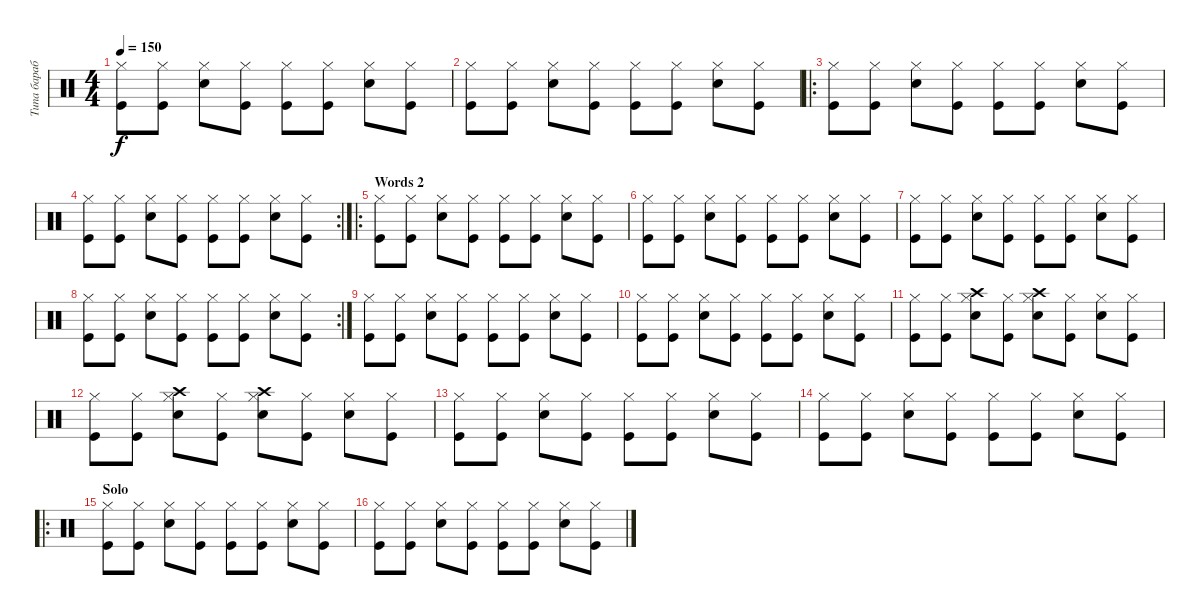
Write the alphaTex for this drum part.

\track ("Типа барабанщик" "Типа бараб") {instrument percussion}
\staff {score}
\articulation defaults
\ts (4 4)
\tempo 150
\clef neutral
\ks c
("Hi-Hat (closed)" "Kick (hit)").8{dy f} ("Hi-Hat (closed)" "Kick (hit)").8 ("Hi-Hat (closed)" "Snare (hit) 2").8 ("Hi-Hat (closed)" "Kick (hit)").8 ("Hi-Hat (closed)" "Kick (hit)").8 ("Hi-Hat (closed)" "Kick (hit)").8 ("Hi-Hat (closed)" "Snare (hit) 2").8 ("Hi-Hat (closed)" "Kick (hit)").8 |
("Hi-Hat (closed)" "Kick (hit)").8 ("Hi-Hat (closed)" "Kick (hit)").8 ("Hi-Hat (closed)" "Snare (hit) 2").8 ("Hi-Hat (closed)" "Kick (hit)").8 ("Hi-Hat (closed)" "Kick (hit)").8 ("Hi-Hat (closed)" "Kick (hit)").8 ("Hi-Hat (closed)" "Snare (hit) 2").8 ("Hi-Hat (closed)" "Kick (hit)").8 |
\ro
("Hi-Hat (closed)" "Kick (hit)").8 ("Hi-Hat (closed)" "Kick (hit)").8 ("Hi-Hat (closed)" "Snare (hit) 2").8 ("Hi-Hat (closed)" "Kick (hit)").8 ("Hi-Hat (closed)" "Kick (hit)").8 ("Hi-Hat (closed)" "Kick (hit)").8 ("Hi-Hat (closed)" "Snare (hit) 2").8 ("Hi-Hat (closed)" "Kick (hit)").8 |
\rc 2
("Hi-Hat (closed)" "Kick (hit)").8 ("Hi-Hat (closed)" "Kick (hit)").8 ("Hi-Hat (closed)" "Snare (hit) 2").8 ("Hi-Hat (closed)" "Kick (hit)").8 ("Hi-Hat (closed)" "Kick (hit)").8 ("Hi-Hat (closed)" "Kick (hit)").8 ("Hi-Hat (closed)" "Snare (hit) 2").8 ("Hi-Hat (closed)" "Kick (hit)").8 |
\ro
\section ("" "Words 2")
("Hi-Hat (closed)" "Kick (hit)").8 ("Hi-Hat (closed)" "Kick (hit)").8 ("Hi-Hat (closed)" "Snare (hit) 2").8 ("Hi-Hat (closed)" "Kick (hit)").8 ("Hi-Hat (closed)" "Kick (hit)").8 ("Hi-Hat (closed)" "Kick (hit)").8 ("Hi-Hat (closed)" "Snare (hit) 2").8 ("Hi-Hat (closed)" "Kick (hit)").8 |
("Hi-Hat (closed)" "Kick (hit)").8 ("Hi-Hat (closed)" "Kick (hit)").8 ("Hi-Hat (closed)" "Snare (hit) 2").8 ("Hi-Hat (closed)" "Kick (hit)").8 ("Hi-Hat (closed)" "Kick (hit)").8 ("Hi-Hat (closed)" "Kick (hit)").8 ("Hi-Hat (closed)" "Snare (hit) 2").8 ("Hi-Hat (closed)" "Kick (hit)").8 |
("Hi-Hat (closed)" "Kick (hit)").8 ("Hi-Hat (closed)" "Kick (hit)").8 ("Hi-Hat (closed)" "Snare (hit) 2").8 ("Hi-Hat (closed)" "Kick (hit)").8 ("Hi-Hat (closed)" "Kick (hit)").8 ("Hi-Hat (closed)" "Kick (hit)").8 ("Hi-Hat (closed)" "Snare (hit) 2").8 ("Hi-Hat (closed)" "Kick (hit)").8 |
\rc 2
("Hi-Hat (closed)" "Kick (hit)").8 ("Hi-Hat (closed)" "Kick (hit)").8 ("Hi-Hat (closed)" "Snare (hit) 2").8 ("Hi-Hat (closed)" "Kick (hit)").8 ("Hi-Hat (closed)" "Kick (hit)").8 ("Hi-Hat (closed)" "Kick (hit)").8 ("Hi-Hat (closed)" "Snare (hit) 2").8 ("Hi-Hat (closed)" "Kick (hit)").8 |
("Hi-Hat (closed)" "Kick (hit)").8 ("Hi-Hat (closed)" "Kick (hit)").8 ("Hi-Hat (closed)" "Snare (hit) 2").8 ("Hi-Hat (closed)" "Kick (hit)").8 ("Hi-Hat (closed)" "Kick (hit)").8 ("Hi-Hat (closed)" "Kick (hit)").8 ("Hi-Hat (closed)" "Snare (hit) 2").8 ("Hi-Hat (closed)" "Kick (hit)").8 |
("Hi-Hat (closed)" "Kick (hit)").8 ("Hi-Hat (closed)" "Kick (hit)").8 ("Hi-Hat (closed)" "Snare (hit) 2").8 ("Hi-Hat (closed)" "Kick (hit)").8 ("Hi-Hat (closed)" "Kick (hit)").8 ("Hi-Hat (closed)" "Kick (hit)").8 ("Hi-Hat (closed)" "Snare (hit) 2").8 ("Hi-Hat (closed)" "Kick (hit)").8 |
("Hi-Hat (closed)" "Kick (hit)").8 ("Hi-Hat (closed)" "Kick (hit)").8 ("Hi-Hat (closed)" "Snare (hit) 2" "Crash high (hit)").8 ("Hi-Hat (closed)" "Kick (hit)").8 ("Hi-Hat (closed)" "Snare (hit) 2" "Crash high (hit)").8 ("Hi-Hat (closed)" "Kick (hit)").8 ("Hi-Hat (closed)" "Snare (hit) 2").8 ("Hi-Hat (closed)" "Kick (hit)").8 |
("Hi-Hat (closed)" "Kick (hit)").8 ("Hi-Hat (closed)" "Kick (hit)").8 ("Hi-Hat (closed)" "Snare (hit) 2" "Crash high (hit)").8 ("Hi-Hat (closed)" "Kick (hit)").8 ("Hi-Hat (closed)" "Snare (hit) 2" "Crash high (hit)").8 ("Hi-Hat (closed)" "Kick (hit)").8 ("Hi-Hat (closed)" "Snare (hit) 2").8 ("Hi-Hat (closed)" "Kick (hit)").8 |
("Hi-Hat (closed)" "Kick (hit)").8 ("Hi-Hat (closed)" "Kick (hit)").8 ("Hi-Hat (closed)" "Snare (hit) 2").8 ("Hi-Hat (closed)" "Kick (hit)").8 ("Hi-Hat (closed)" "Kick (hit)").8 ("Hi-Hat (closed)" "Kick (hit)").8 ("Hi-Hat (closed)" "Snare (hit) 2").8 ("Hi-Hat (closed)" "Kick (hit)").8 |
("Hi-Hat (closed)" "Kick (hit)").8 ("Hi-Hat (closed)" "Kick (hit)").8 ("Hi-Hat (closed)" "Snare (hit) 2").8 ("Hi-Hat (closed)" "Kick (hit)").8 ("Hi-Hat (closed)" "Kick (hit)").8 ("Hi-Hat (closed)" "Kick (hit)").8 ("Hi-Hat (closed)" "Snare (hit) 2").8 ("Hi-Hat (closed)" "Kick (hit)").8 |
\ro
\section ("" "Solo")
("Hi-Hat (closed)" "Kick (hit)").8 ("Hi-Hat (closed)" "Kick (hit)").8 ("Hi-Hat (closed)" "Snare (hit) 2").8 ("Hi-Hat (closed)" "Kick (hit)").8 ("Hi-Hat (closed)" "Kick (hit)").8 ("Hi-Hat (closed)" "Kick (hit)").8 ("Hi-Hat (closed)" "Snare (hit) 2").8 ("Hi-Hat (closed)" "Kick (hit)").8 |
("Hi-Hat (closed)" "Kick (hit)").8 ("Hi-Hat (closed)" "Kick (hit)").8 ("Hi-Hat (closed)" "Snare (hit) 2").8 ("Hi-Hat (closed)" "Kick (hit)").8 ("Hi-Hat (closed)" "Kick (hit)").8 ("Hi-Hat (closed)" "Kick (hit)").8 ("Hi-Hat (closed)" "Snare (hit) 2").8 ("Hi-Hat (closed)" "Kick (hit)").8
